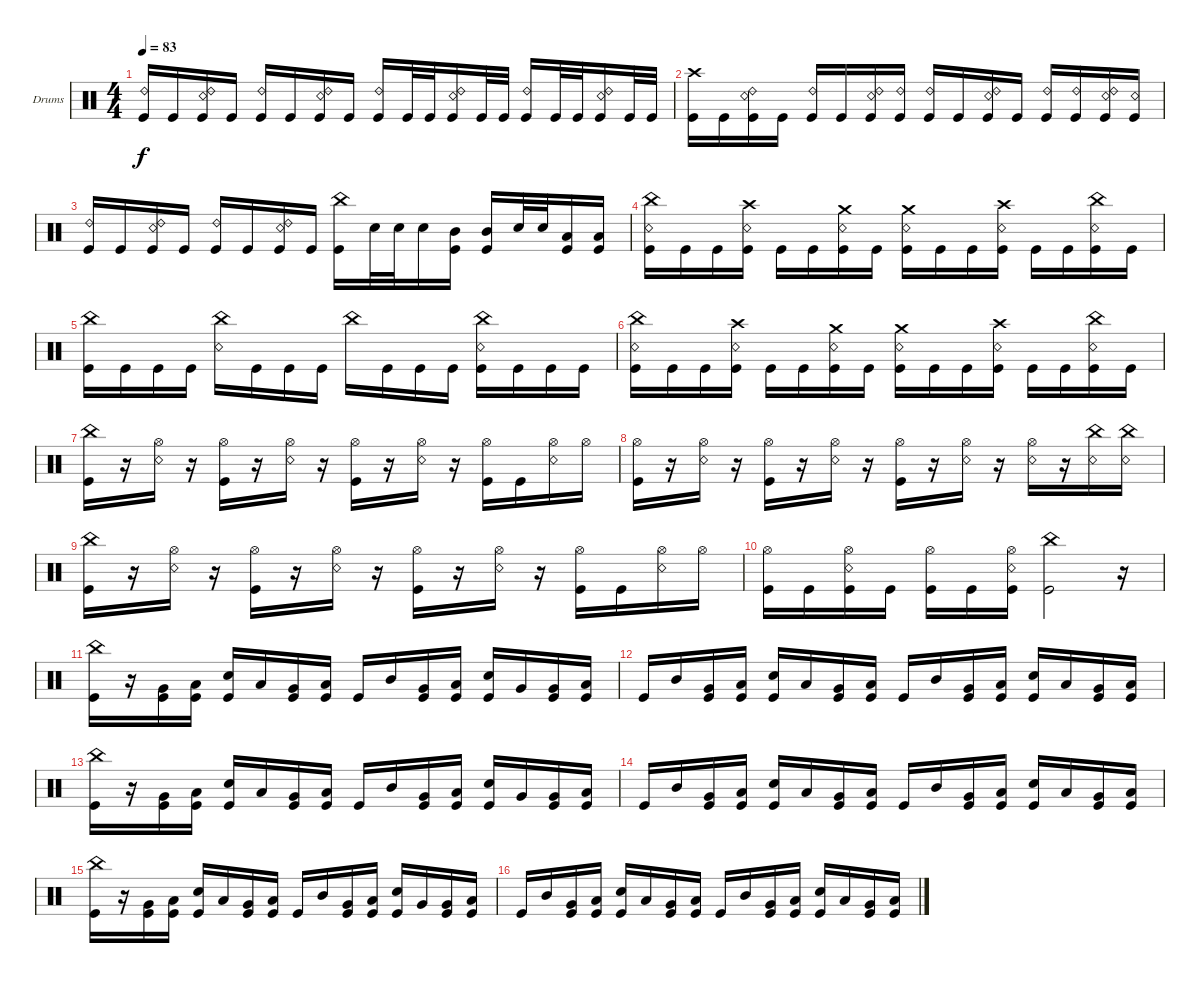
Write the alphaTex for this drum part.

\defaultSystemsLayout 4
\bracketExtendMode groupsimilarinstruments
\firstSystemTrackNameOrientation horizontal
\otherSystemsTrackNameOrientation horizontal
\track ("Drumkit" "Drums") {instrument percussion}
\staff {score}
\articulation defaults
\ts (4 4)
\tempo 83
\clef neutral
\ks c
("Kick (hit)" "Ride (bell) 2").16{dy f} "Kick (hit)".16 ("Kick (hit)" "Ride (bell) 2" "Snare (rim shot)").16 "Kick (hit)".16 ("Kick (hit)" "Ride (bell) 2").16 "Kick (hit)".16 ("Kick (hit)" "Ride (bell) 2" "Snare (rim shot)").16 "Kick (hit)".16 ("Kick (hit)" "Ride (bell) 2").16 "Kick (hit)".32 "Kick (hit)".32 ("Kick (hit)" "Ride (bell) 2" "Snare (rim shot)").16 "Kick (hit)".32 "Kick (hit)".32 ("Kick (hit)" "Ride (bell) 2").16 "Kick (hit)".32 "Kick (hit)".32 ("Kick (hit)" "Ride (bell) 2" "Snare (rim shot)").16 "Kick (hit)".32 "Kick (hit)".32 |
("Kick (hit)" "Crash high (hit)").16 "Kick (hit)".16 ("Kick (hit)" "Ride (bell) 2" "Snare (rim shot)").16 "Kick (hit)".16 ("Kick (hit)" "Ride (bell) 2").16 "Kick (hit)".16 ("Kick (hit)" "Ride (bell) 2" "Snare (rim shot)").16 ("Kick (hit)" "Ride (bell) 2").16 ("Kick (hit)" "Ride (bell) 2").16 "Kick (hit)".16 ("Kick (hit)" "Ride (bell) 2" "Snare (rim shot)").16 "Kick (hit)".16 ("Kick (hit)" "Ride (bell) 2").16 ("Kick (hit)" "Ride (bell) 2").16 ("Kick (hit)" "Ride (bell) 2" "Snare (rim shot)").16 ("Kick (hit)" "Snare (rim shot)").16 |
("Kick (hit)" "Ride (bell) 2").16 "Kick (hit)".16 ("Kick (hit)" "Ride (bell) 2" "Snare (rim shot)").16 "Kick (hit)".16 ("Kick (hit)" "Ride (bell) 2").16 "Kick (hit)".16 ("Kick (hit)" "Ride (bell) 2" "Snare (rim shot)").16 "Kick (hit)".16 ("China (hit)" "Kick (hit)").16 "Snare (hit) 2".32 "Snare (hit) 2".32 "Snare (hit) 2".16 ("Mid Tom (hit)" "Kick (hit)").16 ("Mid Tom (hit)" "Kick (hit)").16 "Snare (hit) 2".32 "Snare (hit) 2".32 ("Low Tom (hit)" "Kick (hit)").16 ("Low Tom (hit)" "Kick (hit)").16 |
("Kick (hit)" "Snare (rim shot)" "China (hit)").16 "Kick (hit)".16 "Kick (hit)".16 ("Kick (hit)" "Snare (rim shot)" "Crash high (hit)").16 "Kick (hit)".16 "Kick (hit)".16 ("Kick (hit)" "Snare (rim shot)" "Crash medium (hit)").16 "Kick (hit)".16 ("Kick (hit)" "Snare (rim shot)" "Crash medium (hit)").16 "Kick (hit)".16 "Kick (hit)".16 ("Kick (hit)" "Snare (rim shot)" "Crash high (hit)").16 "Kick (hit)".16 "Kick (hit)".16 ("Kick (hit)" "Snare (rim shot)" "China (hit)").16 "Kick (hit)".16 |
("Kick (hit)" "China (hit)").16 "Kick (hit)".16 "Kick (hit)".16 "Kick (hit)".16 ("Snare (rim shot)" "China (hit)").16 "Kick (hit)".16 "Kick (hit)".16 "Kick (hit)".16 "China (hit)".16 "Kick (hit)".16 "Kick (hit)".16 "Kick (hit)".16 ("Kick (hit)" "Snare (rim shot)" "China (hit)").16 "Kick (hit)".16 "Kick (hit)".16 "Kick (hit)".16 |
("Kick (hit)" "Snare (rim shot)" "China (hit)").16 "Kick (hit)".16 "Kick (hit)".16 ("Kick (hit)" "Snare (rim shot)" "Crash high (hit)").16 "Kick (hit)".16 "Kick (hit)".16 ("Kick (hit)" "Snare (rim shot)" "Crash medium (hit)").16 "Kick (hit)".16 ("Kick (hit)" "Snare (rim shot)" "Crash medium (hit)").16 "Kick (hit)".16 "Kick (hit)".16 ("Kick (hit)" "Snare (rim shot)" "Crash high (hit)").16 "Kick (hit)".16 "Kick (hit)".16 ("Kick (hit)" "Snare (rim shot)" "China (hit)").16 "Kick (hit)".16 |
("Kick (hit)" "China (hit)").16 r.16 ("Snare (rim shot)" "Hi-Hat (open)").16 r.16 ("Kick (hit)" "Hi-Hat (open)").16 r.16 ("Snare (rim shot)" "Hi-Hat (open)").16 r.16 ("Hi-Hat (open)" "Kick (hit)").16 r.16 ("Snare (rim shot)" "Hi-Hat (open)").16 r.16 ("Kick (hit)" "Hi-Hat (open)").16 "Kick (hit)".16 ("Snare (rim shot)" "Hi-Hat (open)").16 "Hi-Hat (open)".16 |
("Kick (hit)" "Hi-Hat (open)").16 r.16 ("Snare (rim shot)" "Hi-Hat (open)").16 r.16 ("Kick (hit)" "Hi-Hat (open)").16 r.16 ("Snare (rim shot)" "Hi-Hat (open)").16 r.16 ("Kick (hit)" "Hi-Hat (open)").16 r.16 ("Snare (rim shot)" "Hi-Hat (open)").16 r.16 ("Snare (rim shot)" "Hi-Hat (open)").16 r.16 ("Snare (rim shot)" "China (hit)").16 ("Snare (rim shot)" "China (hit)").16 |
("Kick (hit)" "China (hit)").16 r.16 ("Snare (rim shot)" "Hi-Hat (open)").16 r.16 ("Kick (hit)" "Hi-Hat (open)").16 r.16 ("Snare (rim shot)" "Hi-Hat (open)").16 r.16 ("Hi-Hat (open)" "Kick (hit)").16 r.16 ("Snare (rim shot)" "Hi-Hat (open)").16 r.16 ("Kick (hit)" "Hi-Hat (open)").16 "Kick (hit)".16 ("Snare (rim shot)" "Hi-Hat (open)").16 "Hi-Hat (open)".16 |
("Kick (hit)" "Hi-Hat (open)").16 "Kick (hit)".16 ("Kick (hit)" "Snare (rim shot)" "Hi-Hat (open)").16 "Kick (hit)".16 ("Kick (hit)" "Hi-Hat (open)").16 "Kick (hit)".16 ("Kick (hit)" "Snare (rim shot)" "Hi-Hat (open)").16 ("China (hit)" "Kick (hit)").2 r.16 |
("Kick (hit)" "China (hit)").16 r.16 ("Very Low Tom (hit)" "Kick (hit)").16 ("Low Tom (hit)" "Kick (hit)").16 ("Snare (hit) 2" "Kick (hit)").16 "Low Tom (hit)".16 ("Very Low Tom (hit)" "Kick (hit)").16 ("Low Tom (hit)" "Kick (hit)").16 "Kick (hit)".16 "Mid Tom (hit)".16 ("Very Low Tom (hit)" "Kick (hit)").16 ("Low Tom (hit)" "Kick (hit)").16 ("Snare (hit) 2" "Kick (hit)").16 "Very Low Tom (hit)".16 ("Kick (hit)" "Very Low Tom (hit)").16 ("Kick (hit)" "Low Tom (hit)").16 |
"Kick (hit)".16 "Mid Tom (hit)".16 ("Very Low Tom (hit)" "Kick (hit)").16 ("Low Tom (hit)" "Kick (hit)").16 ("Snare (hit) 2" "Kick (hit)").16 "Low Tom (hit)".16 ("Very Low Tom (hit)" "Kick (hit)").16 ("Low Tom (hit)" "Kick (hit)").16 "Kick (hit)".16 "Mid Tom (hit)".16 ("Very Low Tom (hit)" "Kick (hit)").16 ("Low Tom (hit)" "Kick (hit)").16 ("Snare (hit) 2" "Kick (hit)").16 "Low Tom (hit)".16 ("Kick (hit)" "Very Low Tom (hit)").16 ("Kick (hit)" "Low Tom (hit)").16 |
("Kick (hit)" "China (hit)").16 r.16 ("Very Low Tom (hit)" "Kick (hit)").16 ("Low Tom (hit)" "Kick (hit)").16 ("Snare (hit) 2" "Kick (hit)").16 "Low Tom (hit)".16 ("Very Low Tom (hit)" "Kick (hit)").16 ("Low Tom (hit)" "Kick (hit)").16 "Kick (hit)".16 "Mid Tom (hit)".16 ("Very Low Tom (hit)" "Kick (hit)").16 ("Low Tom (hit)" "Kick (hit)").16 ("Snare (hit) 2" "Kick (hit)").16 "Very Low Tom (hit)".16 ("Kick (hit)" "Very Low Tom (hit)").16 ("Kick (hit)" "Low Tom (hit)").16 |
"Kick (hit)".16 "Mid Tom (hit)".16 ("Very Low Tom (hit)" "Kick (hit)").16 ("Low Tom (hit)" "Kick (hit)").16 ("Snare (hit) 2" "Kick (hit)").16 "Low Tom (hit)".16 ("Very Low Tom (hit)" "Kick (hit)").16 ("Low Tom (hit)" "Kick (hit)").16 "Kick (hit)".16 "Mid Tom (hit)".16 ("Very Low Tom (hit)" "Kick (hit)").16 ("Low Tom (hit)" "Kick (hit)").16 ("Snare (hit) 2" "Kick (hit)").16 "Low Tom (hit)".16 ("Kick (hit)" "Very Low Tom (hit)").16 ("Kick (hit)" "Low Tom (hit)").16 |
("Kick (hit)" "China (hit)").16 r.16 ("Very Low Tom (hit)" "Kick (hit)").16 ("Low Tom (hit)" "Kick (hit)").16 ("Snare (hit) 2" "Kick (hit)").16 "Low Tom (hit)".16 ("Very Low Tom (hit)" "Kick (hit)").16 ("Low Tom (hit)" "Kick (hit)").16 "Kick (hit)".16 "Mid Tom (hit)".16 ("Very Low Tom (hit)" "Kick (hit)").16 ("Low Tom (hit)" "Kick (hit)").16 ("Snare (hit) 2" "Kick (hit)").16 "Very Low Tom (hit)".16 ("Kick (hit)" "Very Low Tom (hit)").16 ("Kick (hit)" "Low Tom (hit)").16 |
"Kick (hit)".16 "Mid Tom (hit)".16 ("Very Low Tom (hit)" "Kick (hit)").16 ("Low Tom (hit)" "Kick (hit)").16 ("Snare (hit) 2" "Kick (hit)").16 "Low Tom (hit)".16 ("Very Low Tom (hit)" "Kick (hit)").16 ("Low Tom (hit)" "Kick (hit)").16 "Kick (hit)".16 "Mid Tom (hit)".16 ("Very Low Tom (hit)" "Kick (hit)").16 ("Low Tom (hit)" "Kick (hit)").16 ("Snare (hit) 2" "Kick (hit)").16 "Low Tom (hit)".16 ("Kick (hit)" "Very Low Tom (hit)").16 ("Kick (hit)" "Low Tom (hit)").16
